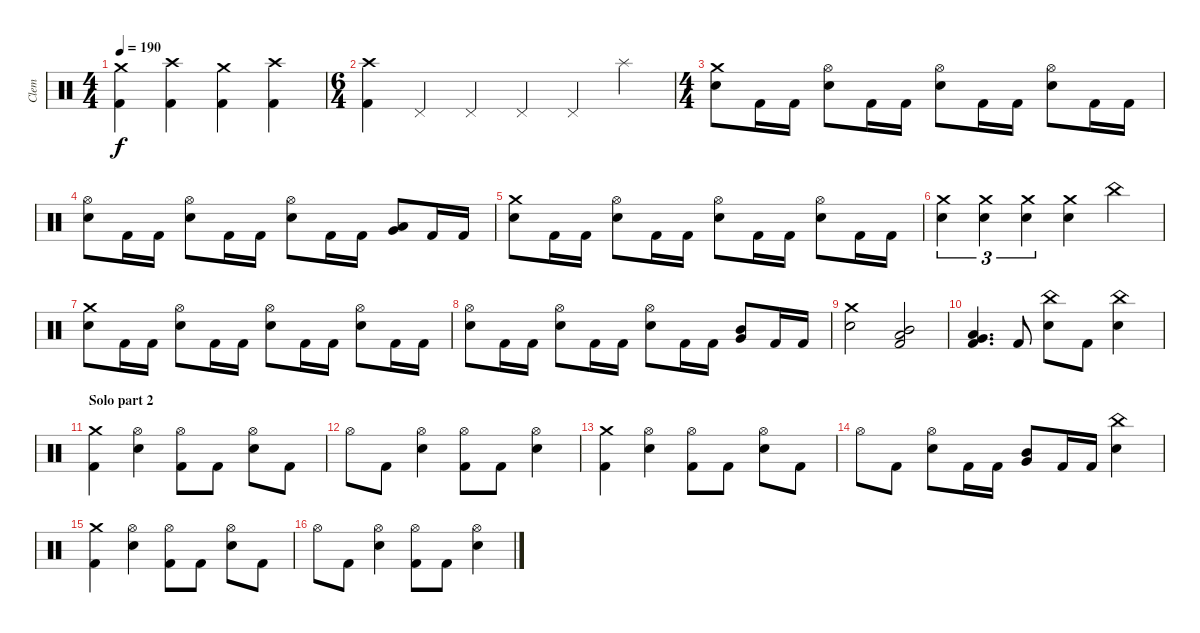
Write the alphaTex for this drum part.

\track ("Clem" "Clem") {instrument percussion}
\staff {score}
\articulation defaults
\ts (4 4)
\tempo 190
\clef neutral
\ks c
("Crash medium (hit)" "Kick (hit) 2").4{dy f} ("Crash high (hit)" "Kick (hit) 2").4 ("Crash medium (hit)" "Kick (hit) 2").4 ("Crash high (hit)" "Kick (hit) 2").4 |
\ts (6 4)
("Crash high (hit)" "Kick (hit) 2").4 "Pedal Hi-Hat (hit)".4 "Pedal Hi-Hat (hit)".4 "Pedal Hi-Hat (hit)".4 "Pedal Hi-Hat (hit)".4 "Splash (hit)".4 |
\ts (4 4)
("Crash medium (hit)" "Electric Snare (hit)").8 "Kick (hit) 2".16 "Kick (hit) 2".16 ("Hi-Hat (open)" "Electric Snare (hit)").8 "Kick (hit) 2".16 "Kick (hit) 2".16 ("Hi-Hat (open)" "Electric Snare (hit)").8 "Kick (hit) 2".16 "Kick (hit) 2".16 ("Hi-Hat (open)" "Electric Snare (hit)").8 "Kick (hit) 2".16 "Kick (hit) 2".16 |
("Hi-Hat (open)" "Electric Snare (hit)").8 "Kick (hit) 2".16 "Kick (hit) 2".16 ("Hi-Hat (open)" "Electric Snare (hit)").8 "Kick (hit) 2".16 "Kick (hit) 2".16 ("Hi-Hat (open)" "Electric Snare (hit)").8 "Kick (hit) 2".16 "Kick (hit) 2".16 ("Low Tom (hit)" "Very Low Tom (hit)").8 "Kick (hit) 2".16 "Kick (hit) 2".16 |
("Crash medium (hit)" "Electric Snare (hit)").8 "Kick (hit) 2".16 "Kick (hit) 2".16 ("Hi-Hat (open)" "Electric Snare (hit)").8 "Kick (hit) 2".16 "Kick (hit) 2".16 ("Hi-Hat (open)" "Electric Snare (hit)").8 "Kick (hit) 2".16 "Kick (hit) 2".16 ("Hi-Hat (open)" "Electric Snare (hit)").8 "Kick (hit) 2".16 "Kick (hit) 2".16 |
("Crash medium (hit)" "Electric Snare (hit)").4{tu (3 2)} ("Crash medium (hit)" "Electric Snare (hit)").4{tu (3 2)} ("Crash medium (hit)" "Electric Snare (hit)").4{tu (3 2)} ("Crash medium (hit)" "Electric Snare (hit)").4 "China (hit)".4 |
("Crash medium (hit)" "Electric Snare (hit)").8 "Kick (hit) 2".16 "Kick (hit) 2".16 ("Hi-Hat (open)" "Electric Snare (hit)").8 "Kick (hit) 2".16 "Kick (hit) 2".16 ("Hi-Hat (open)" "Electric Snare (hit)").8 "Kick (hit) 2".16 "Kick (hit) 2".16 ("Hi-Hat (open)" "Electric Snare (hit)").8 "Kick (hit) 2".16 "Kick (hit) 2".16 |
("Hi-Hat (open)" "Electric Snare (hit)").8 "Kick (hit) 2".16 "Kick (hit) 2".16 ("Hi-Hat (open)" "Electric Snare (hit)").8 "Kick (hit) 2".16 "Kick (hit) 2".16 ("Hi-Hat (open)" "Electric Snare (hit)").8 "Kick (hit) 2".16 "Kick (hit) 2".16 ("Mid Tom (hit)" "Very Low Tom (hit)").8 "Kick (hit) 2".16 "Kick (hit) 2".16 |
("Crash medium (hit)" "Electric Snare (hit)").2 ("Mid Tom (hit)" "Low Tom (hit)" "Kick (hit) 2").2 |
("Low Tom (hit)" "Very Low Tom (hit)" "Kick (hit) 2").4{d} "Kick (hit) 2".8 ("China (hit)" "Electric Snare (hit)").8 "Kick (hit) 2".8 ("China (hit)" "Electric Snare (hit)").4 |
\section ("" "Solo part 2")
("Crash medium (hit)" "Kick (hit) 2").4 ("Hi-Hat (open)" "Electric Snare (hit)").4 ("Hi-Hat (open)" "Kick (hit) 2").8 "Kick (hit) 2".8 ("Hi-Hat (open)" "Electric Snare (hit)").8 "Kick (hit) 2".8 |
"Hi-Hat (open)".8 "Kick (hit) 2".8 ("Hi-Hat (open)" "Electric Snare (hit)").4 ("Hi-Hat (open)" "Kick (hit) 2").8 "Kick (hit) 2".8 ("Hi-Hat (open)" "Electric Snare (hit)").4 |
("Crash medium (hit)" "Kick (hit) 2").4 ("Hi-Hat (open)" "Electric Snare (hit)").4 ("Hi-Hat (open)" "Kick (hit) 2").8 "Kick (hit) 2".8 ("Hi-Hat (open)" "Electric Snare (hit)").8 "Kick (hit) 2".8 |
"Hi-Hat (open)".8 "Kick (hit) 2".8 ("Hi-Hat (open)" "Electric Snare (hit)").8 "Kick (hit) 2".16 "Kick (hit) 2".16 ("Mid Tom (hit)" "Very Low Tom (hit)").8 "Kick (hit) 2".16 "Kick (hit) 2".16 ("China (hit)" "Electric Snare (hit)").4 |
("Crash medium (hit)" "Kick (hit) 2").4 ("Hi-Hat (open)" "Electric Snare (hit)").4 ("Hi-Hat (open)" "Kick (hit) 2").8 "Kick (hit) 2".8 ("Hi-Hat (open)" "Electric Snare (hit)").8 "Kick (hit) 2".8 |
"Hi-Hat (open)".8 "Kick (hit) 2".8 ("Hi-Hat (open)" "Electric Snare (hit)").4 ("Hi-Hat (open)" "Kick (hit) 2").8 "Kick (hit) 2".8 ("Hi-Hat (open)" "Electric Snare (hit)").4
